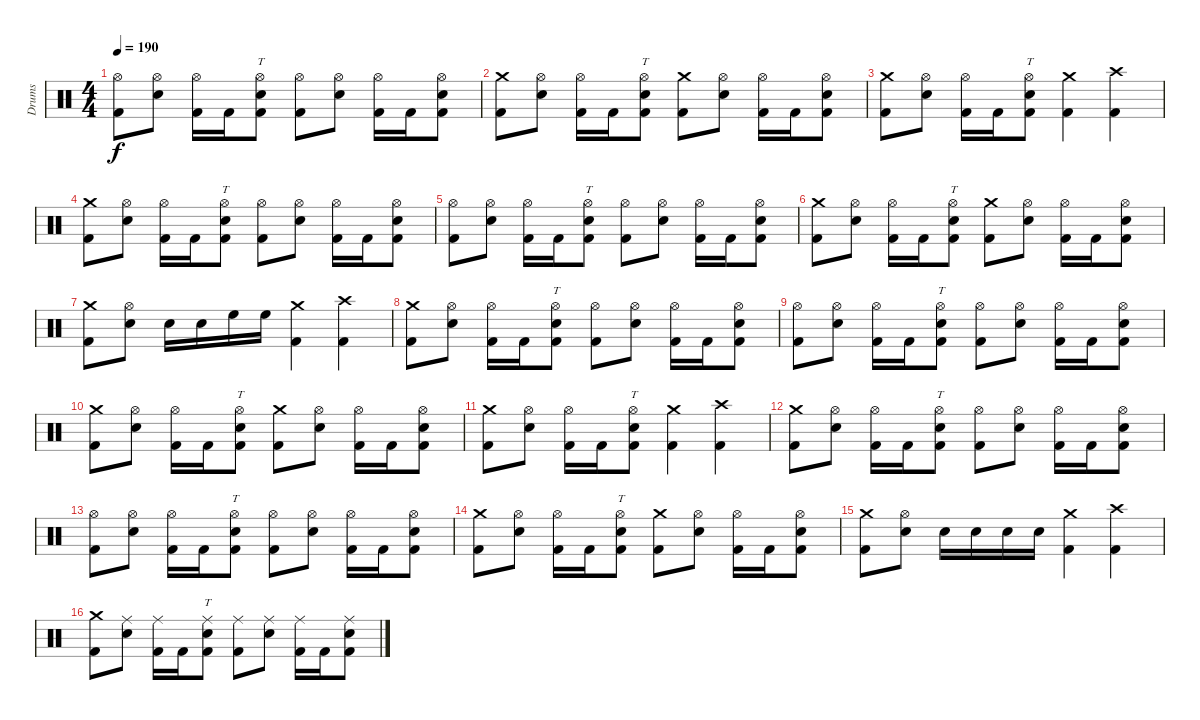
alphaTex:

\track ("Drums" "Drums") {instrument percussion}
\staff {score}
\articulation defaults
\ts (4 4)
\tempo 190
\clef neutral
\ks c
("Hi-Hat (open)" "Kick (hit) 2").8{dy f} ("Hi-Hat (open)" "Electric Snare (hit)").8 ("Hi-Hat (open)" "Kick (hit) 2").16 "Kick (hit) 2".16 ("Hi-Hat (open)" "Electric Snare (hit)" "Kick (hit) 2").8{tt} ("Hi-Hat (open)" "Kick (hit) 2").8 ("Hi-Hat (open)" "Electric Snare (hit)").8 ("Hi-Hat (open)" "Kick (hit) 2").16 "Kick (hit) 2".16 ("Hi-Hat (open)" "Electric Snare (hit)" "Kick (hit) 2").8 |
("Crash medium (hit)" "Kick (hit) 2").8 ("Hi-Hat (open)" "Electric Snare (hit)").8 ("Hi-Hat (open)" "Kick (hit) 2").16 "Kick (hit) 2".16 ("Hi-Hat (open)" "Electric Snare (hit)" "Kick (hit) 2").8{tt} ("Crash medium (hit)" "Kick (hit) 2").8 ("Hi-Hat (open)" "Electric Snare (hit)").8 ("Hi-Hat (open)" "Kick (hit) 2").16 "Kick (hit) 2".16 ("Hi-Hat (open)" "Electric Snare (hit)" "Kick (hit) 2").8 |
("Crash medium (hit)" "Kick (hit) 2").8 ("Hi-Hat (open)" "Electric Snare (hit)").8 ("Hi-Hat (open)" "Kick (hit) 2").16 "Kick (hit) 2".16 ("Hi-Hat (open)" "Electric Snare (hit)" "Kick (hit) 2").8{tt} ("Crash medium (hit)" "Kick (hit) 2").4 ("Crash high (hit)" "Kick (hit) 2").4 |
("Crash medium (hit)" "Kick (hit) 2").8 ("Hi-Hat (open)" "Electric Snare (hit)").8 ("Hi-Hat (open)" "Kick (hit) 2").16 "Kick (hit) 2".16 ("Hi-Hat (open)" "Electric Snare (hit)" "Kick (hit) 2").8{tt} ("Hi-Hat (open)" "Kick (hit) 2").8 ("Hi-Hat (open)" "Electric Snare (hit)").8 ("Hi-Hat (open)" "Kick (hit) 2").16 "Kick (hit) 2".16 ("Hi-Hat (open)" "Electric Snare (hit)" "Kick (hit) 2").8 |
("Hi-Hat (open)" "Kick (hit) 2").8 ("Hi-Hat (open)" "Electric Snare (hit)").8 ("Hi-Hat (open)" "Kick (hit) 2").16 "Kick (hit) 2".16 ("Hi-Hat (open)" "Electric Snare (hit)" "Kick (hit) 2").8{tt} ("Hi-Hat (open)" "Kick (hit) 2").8 ("Hi-Hat (open)" "Electric Snare (hit)").8 ("Hi-Hat (open)" "Kick (hit) 2").16 "Kick (hit) 2".16 ("Hi-Hat (open)" "Electric Snare (hit)" "Kick (hit) 2").8 |
("Crash medium (hit)" "Kick (hit) 2").8 ("Hi-Hat (open)" "Electric Snare (hit)").8 ("Hi-Hat (open)" "Kick (hit) 2").16 "Kick (hit) 2".16 ("Hi-Hat (open)" "Electric Snare (hit)" "Kick (hit) 2").8{tt} ("Crash medium (hit)" "Kick (hit) 2").8 ("Hi-Hat (open)" "Electric Snare (hit)").8 ("Hi-Hat (open)" "Kick (hit) 2").16 "Kick (hit) 2".16 ("Hi-Hat (open)" "Electric Snare (hit)" "Kick (hit) 2").8 |
("Crash medium (hit)" "Kick (hit) 2").8 ("Hi-Hat (open)" "Electric Snare (hit)").8 "Electric Snare (hit)".16 "Electric Snare (hit)".16 "High Floor Tom (hit)".16 "High Floor Tom (hit)".16 ("Crash medium (hit)" "Kick (hit) 2").4 ("Crash high (hit)" "Kick (hit) 2").4 |
("Crash medium (hit)" "Kick (hit) 2").8 ("Hi-Hat (open)" "Electric Snare (hit)").8 ("Hi-Hat (open)" "Kick (hit) 2").16 "Kick (hit) 2".16 ("Hi-Hat (open)" "Electric Snare (hit)" "Kick (hit) 2").8{tt} ("Hi-Hat (open)" "Kick (hit) 2").8 ("Hi-Hat (open)" "Electric Snare (hit)").8 ("Hi-Hat (open)" "Kick (hit) 2").16 "Kick (hit) 2".16 ("Hi-Hat (open)" "Electric Snare (hit)" "Kick (hit) 2").8 |
("Hi-Hat (open)" "Kick (hit) 2").8 ("Hi-Hat (open)" "Electric Snare (hit)").8 ("Hi-Hat (open)" "Kick (hit) 2").16 "Kick (hit) 2".16 ("Hi-Hat (open)" "Electric Snare (hit)" "Kick (hit) 2").8{tt} ("Hi-Hat (open)" "Kick (hit) 2").8 ("Hi-Hat (open)" "Electric Snare (hit)").8 ("Hi-Hat (open)" "Kick (hit) 2").16 "Kick (hit) 2".16 ("Hi-Hat (open)" "Electric Snare (hit)" "Kick (hit) 2").8 |
("Crash medium (hit)" "Kick (hit) 2").8 ("Hi-Hat (open)" "Electric Snare (hit)").8 ("Hi-Hat (open)" "Kick (hit) 2").16 "Kick (hit) 2".16 ("Hi-Hat (open)" "Electric Snare (hit)" "Kick (hit) 2").8{tt} ("Crash medium (hit)" "Kick (hit) 2").8 ("Hi-Hat (open)" "Electric Snare (hit)").8 ("Hi-Hat (open)" "Kick (hit) 2").16 "Kick (hit) 2".16 ("Hi-Hat (open)" "Electric Snare (hit)" "Kick (hit) 2").8 |
("Crash medium (hit)" "Kick (hit) 2").8 ("Hi-Hat (open)" "Electric Snare (hit)").8 ("Hi-Hat (open)" "Kick (hit) 2").16 "Kick (hit) 2".16 ("Hi-Hat (open)" "Electric Snare (hit)" "Kick (hit) 2").8{tt} ("Crash medium (hit)" "Kick (hit) 2").4 ("Crash high (hit)" "Kick (hit) 2").4 |
("Crash medium (hit)" "Kick (hit) 2").8 ("Hi-Hat (open)" "Electric Snare (hit)").8 ("Hi-Hat (open)" "Kick (hit) 2").16 "Kick (hit) 2".16 ("Hi-Hat (open)" "Electric Snare (hit)" "Kick (hit) 2").8{tt} ("Hi-Hat (open)" "Kick (hit) 2").8 ("Hi-Hat (open)" "Electric Snare (hit)").8 ("Hi-Hat (open)" "Kick (hit) 2").16 "Kick (hit) 2".16 ("Hi-Hat (open)" "Electric Snare (hit)" "Kick (hit) 2").8 |
("Hi-Hat (open)" "Kick (hit) 2").8 ("Hi-Hat (open)" "Electric Snare (hit)").8 ("Hi-Hat (open)" "Kick (hit) 2").16 "Kick (hit) 2".16 ("Hi-Hat (open)" "Electric Snare (hit)" "Kick (hit) 2").8{tt} ("Hi-Hat (open)" "Kick (hit) 2").8 ("Hi-Hat (open)" "Electric Snare (hit)").8 ("Hi-Hat (open)" "Kick (hit) 2").16 "Kick (hit) 2".16 ("Hi-Hat (open)" "Electric Snare (hit)" "Kick (hit) 2").8 |
("Crash medium (hit)" "Kick (hit) 2").8 ("Hi-Hat (open)" "Electric Snare (hit)").8 ("Hi-Hat (open)" "Kick (hit) 2").16 "Kick (hit) 2".16 ("Hi-Hat (open)" "Electric Snare (hit)" "Kick (hit) 2").8{tt} ("Crash medium (hit)" "Kick (hit) 2").8 ("Hi-Hat (open)" "Electric Snare (hit)").8 ("Hi-Hat (open)" "Kick (hit) 2").16 "Kick (hit) 2".16 ("Hi-Hat (open)" "Electric Snare (hit)" "Kick (hit) 2").8 |
("Crash medium (hit)" "Kick (hit) 2").8 ("Hi-Hat (open)" "Electric Snare (hit)").8 "Electric Snare (hit)".16 "Electric Snare (hit)".16 "Electric Snare (hit)".16 "Electric Snare (hit)".16 ("Crash medium (hit)" "Kick (hit) 2").4 ("Crash high (hit)" "Kick (hit) 2").4 |
("Crash medium (hit)" "Kick (hit) 2").8 ("Ride (middle)" "Electric Snare (hit)").8 ("Ride (middle)" "Kick (hit) 2").16 "Kick (hit) 2".16 ("Ride (middle)" "Electric Snare (hit)" "Kick (hit) 2").8{tt} ("Ride (middle)" "Kick (hit) 2").8 ("Ride (middle)" "Electric Snare (hit)").8 ("Ride (middle)" "Kick (hit) 2").16 "Kick (hit) 2".16 ("Ride (middle)" "Electric Snare (hit)" "Kick (hit) 2").8
